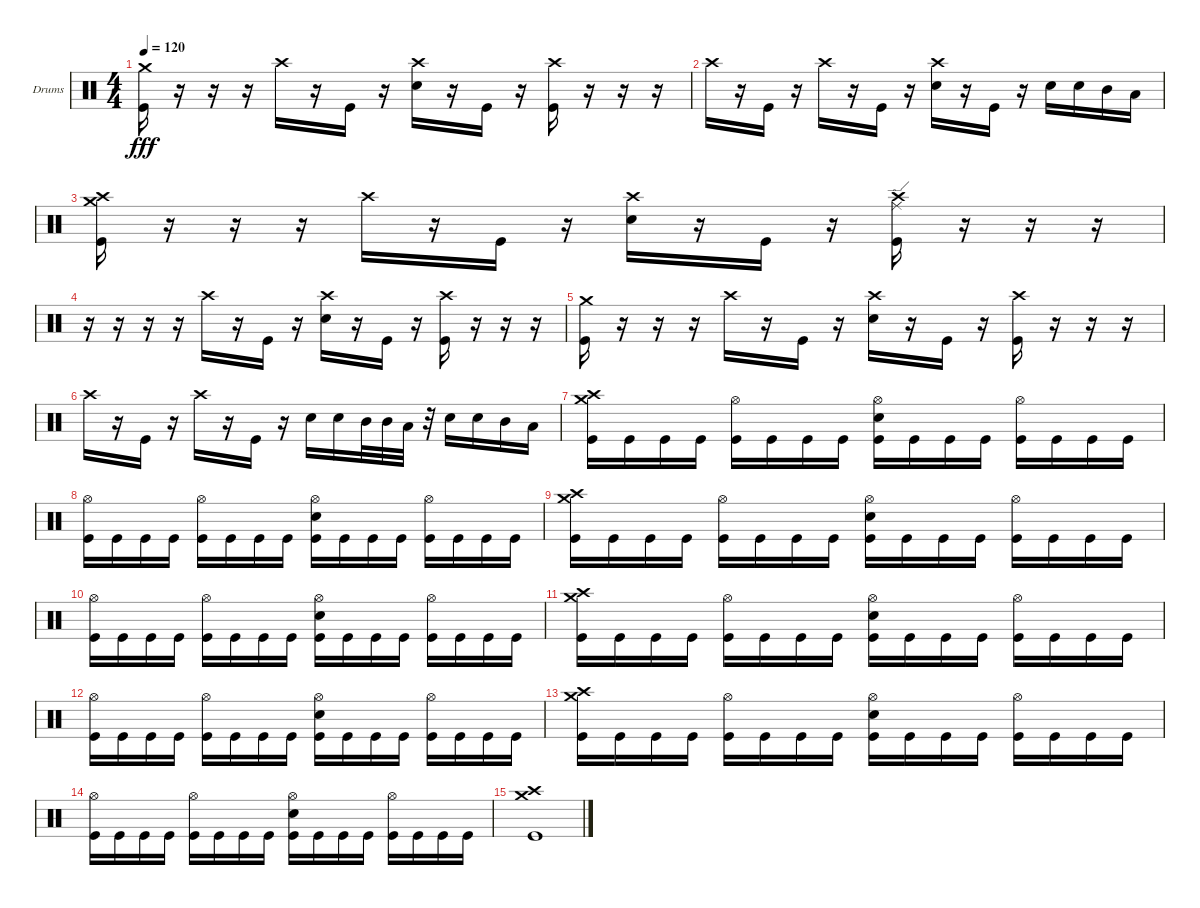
\bracketExtendMode groupsimilarinstruments
\firstSystemTrackNameOrientation horizontal
\otherSystemsTrackNameOrientation horizontal
\track ("Drumkit" "Drums") {instrument percussion}
\staff {score}
\articulation defaults
\ts (4 4)
\tempo 120
\clef neutral
\ks c
("Kick (hit)" "Crash medium (hit)").16{dy fff} r.16 r.16 r.16 "Crash high (hit)".16 r.16 "Kick (hit)".16 r.16 ("Snare (hit) 2" "Crash high (hit)").16 r.16 "Kick (hit)".16 r.16 ("Kick (hit)" "Crash high (hit)").16 r.16 r.16 r.16 |
"Crash high (hit)".16 r.16 "Kick (hit)".16 r.16 "Crash high (hit)".16 r.16 "Kick (hit)".16 r.16 ("Snare (hit) 2" "Crash high (hit)").16 r.16 "Kick (hit)".16 r.16 "Snare (hit) 2".16 "Snare (hit) 2".16 "Mid Tom (hit)".16 "Low Tom (hit)".16 |
("Kick (hit)" "Crash medium (hit)" "Crash high (hit)").16 r.16 r.16 r.16 "Crash high (hit)".16 r.16 "Kick (hit)".16 r.16 ("Snare (hit) 2" "Crash high (hit)").16 r.16 "Kick (hit)".16 r.16 ("Kick (hit)" "Crash high (hit)" "Ride (edge)").16 r.16 r.16 r.16 |
r.16 r.16 r.16 r.16 "Crash high (hit)".16 r.16 "Kick (hit)".16 r.16 ("Snare (hit) 2" "Crash high (hit)").16 r.16 "Kick (hit)".16 r.16 ("Kick (hit)" "Crash high (hit)").16 r.16 r.16 r.16 |
("Kick (hit)" "Crash medium (hit)").16 r.16 r.16 r.16 "Crash high (hit)".16 r.16 "Kick (hit)".16 r.16 ("Snare (hit) 2" "Crash high (hit)").16 r.16 "Kick (hit)".16 r.16 ("Kick (hit)" "Crash high (hit)").16 r.16 r.16 r.16 |
"Crash high (hit)".16 r.16 "Kick (hit)".16 r.16 "Crash high (hit)".16 r.16 "Kick (hit)".16 r.16 "Snare (hit) 2".16 "Snare (hit) 2".16 "Mid Tom (hit)".32 "Mid Tom (hit)".32 "Low Tom (hit)".32 r.32 "Snare (hit) 2".16 "Snare (hit) 2".16 "Mid Tom (hit)".16 "Low Tom (hit)".16 |
("Kick (hit)" "Crash medium (hit)" "Crash high (hit)").16 "Kick (hit)".16 "Kick (hit)".16 "Kick (hit)".16 ("Kick (hit)" "Hi-Hat (open)").16 "Kick (hit)".16 "Kick (hit)".16 "Kick (hit)".16 ("Kick (hit)" "Snare (hit) 2" "Hi-Hat (open)").16 "Kick (hit)".16 "Kick (hit)".16 "Kick (hit)".16 ("Kick (hit)" "Hi-Hat (open)").16 "Kick (hit)".16 "Kick (hit)".16 "Kick (hit)".16 |
("Kick (hit)" "Hi-Hat (open)").16 "Kick (hit)".16 "Kick (hit)".16 "Kick (hit)".16 ("Kick (hit)" "Hi-Hat (open)").16 "Kick (hit)".16 "Kick (hit)".16 "Kick (hit)".16 ("Kick (hit)" "Snare (hit) 2" "Hi-Hat (open)").16 "Kick (hit)".16 "Kick (hit)".16 "Kick (hit)".16 ("Kick (hit)" "Hi-Hat (open)").16 "Kick (hit)".16 "Kick (hit)".16 "Kick (hit)".16 |
("Kick (hit)" "Crash medium (hit)" "Crash high (hit)").16 "Kick (hit)".16 "Kick (hit)".16 "Kick (hit)".16 ("Kick (hit)" "Hi-Hat (open)").16 "Kick (hit)".16 "Kick (hit)".16 "Kick (hit)".16 ("Kick (hit)" "Snare (hit) 2" "Hi-Hat (open)").16 "Kick (hit)".16 "Kick (hit)".16 "Kick (hit)".16 ("Kick (hit)" "Hi-Hat (open)").16 "Kick (hit)".16 "Kick (hit)".16 "Kick (hit)".16 |
("Kick (hit)" "Hi-Hat (open)").16 "Kick (hit)".16 "Kick (hit)".16 "Kick (hit)".16 ("Kick (hit)" "Hi-Hat (open)").16 "Kick (hit)".16 "Kick (hit)".16 "Kick (hit)".16 ("Kick (hit)" "Snare (hit) 2" "Hi-Hat (open)").16 "Kick (hit)".16 "Kick (hit)".16 "Kick (hit)".16 ("Kick (hit)" "Hi-Hat (open)").16 "Kick (hit)".16 "Kick (hit)".16 "Kick (hit)".16 |
("Kick (hit)" "Crash medium (hit)" "Crash high (hit)").16 "Kick (hit)".16 "Kick (hit)".16 "Kick (hit)".16 ("Kick (hit)" "Hi-Hat (open)").16 "Kick (hit)".16 "Kick (hit)".16 "Kick (hit)".16 ("Kick (hit)" "Snare (hit) 2" "Hi-Hat (open)").16 "Kick (hit)".16 "Kick (hit)".16 "Kick (hit)".16 ("Kick (hit)" "Hi-Hat (open)").16 "Kick (hit)".16 "Kick (hit)".16 "Kick (hit)".16 |
("Kick (hit)" "Hi-Hat (open)").16 "Kick (hit)".16 "Kick (hit)".16 "Kick (hit)".16 ("Kick (hit)" "Hi-Hat (open)").16 "Kick (hit)".16 "Kick (hit)".16 "Kick (hit)".16 ("Kick (hit)" "Snare (hit) 2" "Hi-Hat (open)").16 "Kick (hit)".16 "Kick (hit)".16 "Kick (hit)".16 ("Kick (hit)" "Hi-Hat (open)").16 "Kick (hit)".16 "Kick (hit)".16 "Kick (hit)".16 |
("Kick (hit)" "Crash medium (hit)" "Crash high (hit)").16 "Kick (hit)".16 "Kick (hit)".16 "Kick (hit)".16 ("Kick (hit)" "Hi-Hat (open)").16 "Kick (hit)".16 "Kick (hit)".16 "Kick (hit)".16 ("Kick (hit)" "Snare (hit) 2" "Hi-Hat (open)").16 "Kick (hit)".16 "Kick (hit)".16 "Kick (hit)".16 ("Kick (hit)" "Hi-Hat (open)").16 "Kick (hit)".16 "Kick (hit)".16 "Kick (hit)".16 |
("Kick (hit)" "Hi-Hat (open)").16 "Kick (hit)".16 "Kick (hit)".16 "Kick (hit)".16 ("Kick (hit)" "Hi-Hat (open)").16 "Kick (hit)".16 "Kick (hit)".16 "Kick (hit)".16 ("Kick (hit)" "Snare (hit) 2" "Hi-Hat (open)").16 "Kick (hit)".16 "Kick (hit)".16 "Kick (hit)".16 ("Kick (hit)" "Hi-Hat (open)").16 "Kick (hit)".16 "Kick (hit)".16 "Kick (hit)".16 |
("Kick (hit)" "Crash high (hit)" "Crash medium (hit)").1
